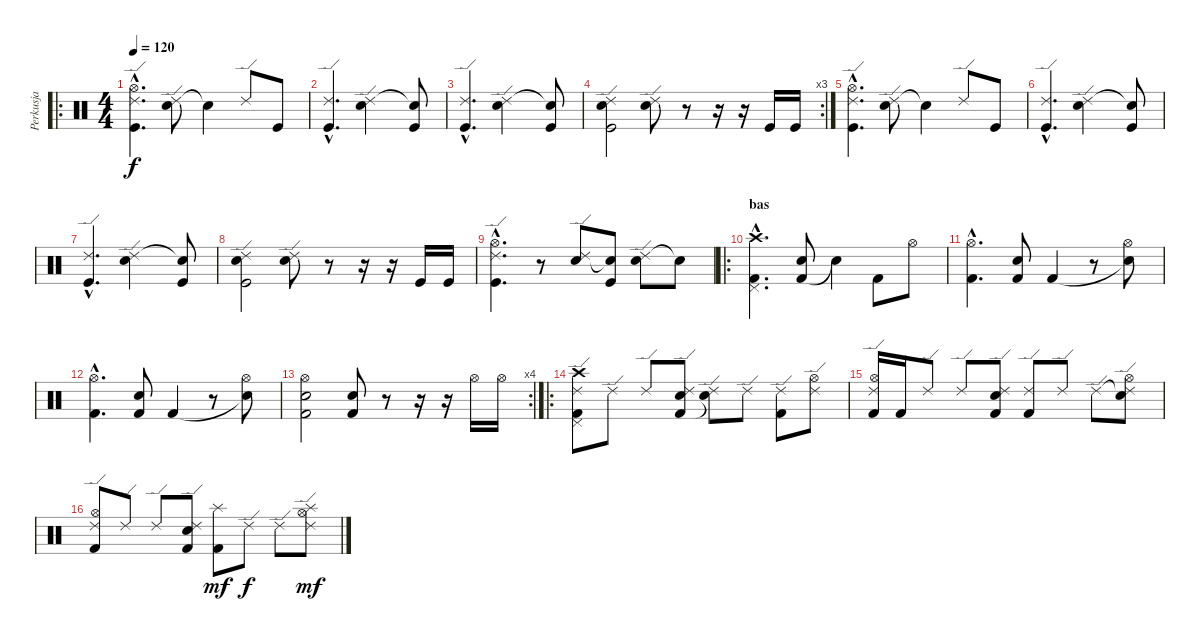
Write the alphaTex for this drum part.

\track ("Perkusja" "Perkusja") {instrument percussion}
\staff {score}
\articulation defaults
\ro
\ts (4 4)
\tempo 120
\clef neutral
\ks c
("Ride (edge) 2"{hac} "Kick (hit)"{hac} "Hi-Hat (open)"{hac}).4{d dy f} ("Ride (edge) 2" "Metronome (bell)").8 "Snare (hit)"{t}.4 "Ride (edge) 2".8 "Kick (hit)".8 |
("Ride (edge) 2"{hac} "Kick (hit)"{hac}).4{d} ("Ride (edge) 2" "Metronome (bell)").2 ("Snare (hit)"{t} "Kick (hit)").8 |
("Ride (edge) 2"{hac} "Kick (hit)"{hac}).4{d} ("Ride (edge) 2" "Metronome (bell)").2 ("Snare (hit)"{t} "Kick (hit)").8 |
\rc 3
("Ride (edge) 2" "Metronome (bell)" "Kick (hit)").2 ("Ride (edge) 2" "Metronome (bell)").8 r.8 r.16 r.16 "Kick (hit)".16 "Kick (hit)".16 |
("Ride (edge) 2"{hac} "Kick (hit)"{hac} "Hi-Hat (open)"{hac}).4{d} ("Ride (edge) 2" "Metronome (bell)").8 "Snare (hit)"{t}.4 "Ride (edge) 2".8 "Kick (hit)".8 |
("Ride (edge) 2"{hac} "Kick (hit)"{hac}).4{d} ("Ride (edge) 2" "Metronome (bell)").2 ("Snare (hit)"{t} "Kick (hit)").8 |
("Ride (edge) 2"{hac} "Kick (hit)"{hac}).4{d} ("Ride (edge) 2" "Metronome (bell)").2 ("Snare (hit)"{t} "Kick (hit)").8 |
("Ride (edge) 2" "Metronome (bell)" "Kick (hit)").2 ("Ride (edge) 2" "Metronome (bell)").8 r.8 r.16 r.16 "Kick (hit)".16 "Kick (hit)".16 |
("Ride (edge) 2"{hac} "Kick (hit)"{hac} "Hi-Hat (open)"{hac}).4{d} r.8 ("Ride (edge) 2" "Snare (hit) 2").8 ("Snare (hit)"{t} "Kick (hit)").8 ("Ride (edge) 2" "Snare (hit) 2").8 "Snare (hit)"{t}.8 |
\ro
\section ("" "bas")
("Kick (hit) 2"{hac} "Pedal Hi-Hat (hit)"{hac} "Crash high (hit)"{hac}).4{d} ("Kick (hit) 2" "Snare (hit) 2").8 "Snare (hit)"{t}.4 "Kick (hit) 2".8 "Hi-Hat (open)".8 |
("Kick (hit) 2"{hac} "Hi-Hat (open)"{hac}).4{d} ("Kick (hit) 2" "Snare (hit) 2").8 "Kick (hit) 2".4 r.8 ("Snare (hit)"{t} "Hi-Hat (open)").8 |
("Kick (hit) 2"{hac} "Hi-Hat (open)"{hac}).4{d} ("Kick (hit) 2" "Snare (hit) 2").8 "Kick (hit) 2".4 r.8 ("Snare (hit)"{t} "Hi-Hat (open)").8 |
\rc 4
("Kick (hit) 2" "Snare (hit) 2" "Hi-Hat (open)").2 ("Kick (hit) 2" "Snare (hit) 2").8 r.8 r.16 r.16 "Hi-Hat (open)".16 "Hi-Hat (open)".16 |
\ro
("Kick (hit) 2" "Ride (edge) 2" "Pedal Hi-Hat (hit)" "Crash high (hit)").8 "Ride (edge) 2".8 "Ride (edge) 2".8 ("Kick (hit) 2" "Ride (edge) 2" "Snare (hit) 2").8 ("Snare (hit)"{t} "Ride (edge) 2").8 "Ride (edge) 2".8 ("Kick (hit) 2" "Ride (edge) 2").8 ("Ride (edge) 2" "Hi-Hat (open)").8 |
("Kick (hit) 2" "Ride (edge) 2" "Hi-Hat (open)").16 "Kick (hit) 2".16 "Ride (edge) 2".8 "Ride (edge) 2".8 ("Kick (hit) 2" "Ride (edge) 2" "Snare (hit) 2").8 ("Kick (hit) 2" "Ride (edge) 2").8 "Ride (edge) 2".8 "Ride (edge) 2".8 ("Snare (hit)"{t} "Ride (edge) 2" "Hi-Hat (open)").8 |
("Kick (hit) 2" "Ride (edge) 2" "Hi-Hat (open)").8 "Ride (edge) 2".8 "Ride (edge) 2".8 ("Kick (hit) 2" "Ride (edge) 2" "Snare (hit) 2").8 ("Kick (hit) 2" "Splash (hit)").8{dy mf} "Ride (edge) 2".8{dy f} "Ride (edge) 2".8 ("Ride (edge) 2" "Splash (hit)" "Hi-Hat (open)").8{dy mf}
